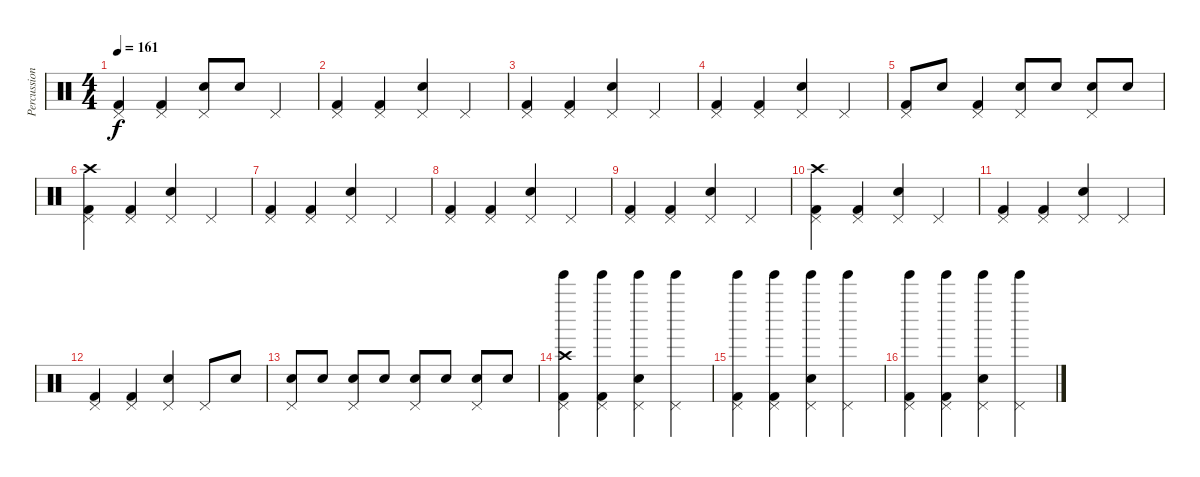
\track ("Percussion" "Percussion") {instrument percussion}
\staff {score}
\articulation defaults
\ts (4 4)
\tempo 161
\clef neutral
\ks c
("Pedal Hi-Hat (hit)" "Kick (hit) 2").4{dy f} ("Pedal Hi-Hat (hit)" "Kick (hit) 2").4 ("Pedal Hi-Hat (hit)" "Electric Snare (hit)").8 "Electric Snare (hit)".8 "Pedal Hi-Hat (hit)".4 |
("Pedal Hi-Hat (hit)" "Kick (hit) 2").4 ("Pedal Hi-Hat (hit)" "Kick (hit) 2").4 ("Pedal Hi-Hat (hit)" "Electric Snare (hit)").4 "Pedal Hi-Hat (hit)".4 |
("Pedal Hi-Hat (hit)" "Kick (hit) 2").4 ("Pedal Hi-Hat (hit)" "Kick (hit) 2").4 ("Pedal Hi-Hat (hit)" "Electric Snare (hit)").4 "Pedal Hi-Hat (hit)".4 |
("Pedal Hi-Hat (hit)" "Kick (hit) 2").4 ("Pedal Hi-Hat (hit)" "Kick (hit) 2").4 ("Pedal Hi-Hat (hit)" "Electric Snare (hit)").4 "Pedal Hi-Hat (hit)".4 |
("Pedal Hi-Hat (hit)" "Kick (hit) 2").8 "Electric Snare (hit)".8 ("Pedal Hi-Hat (hit)" "Kick (hit) 2").4 ("Pedal Hi-Hat (hit)" "Electric Snare (hit)").8 "Electric Snare (hit)".8 ("Pedal Hi-Hat (hit)" "Electric Snare (hit)").8 "Electric Snare (hit)".8 |
("Pedal Hi-Hat (hit)" "Crash high (hit)" "Kick (hit) 2").4 ("Pedal Hi-Hat (hit)" "Kick (hit) 2").4 ("Pedal Hi-Hat (hit)" "Electric Snare (hit)").4 "Pedal Hi-Hat (hit)".4 |
("Pedal Hi-Hat (hit)" "Kick (hit) 2").4 ("Pedal Hi-Hat (hit)" "Kick (hit) 2").4 ("Pedal Hi-Hat (hit)" "Electric Snare (hit)").4 "Pedal Hi-Hat (hit)".4 |
("Pedal Hi-Hat (hit)" "Kick (hit) 2").4 ("Pedal Hi-Hat (hit)" "Kick (hit) 2").4 ("Pedal Hi-Hat (hit)" "Electric Snare (hit)").4 "Pedal Hi-Hat (hit)".4 |
("Pedal Hi-Hat (hit)" "Kick (hit) 2").4 ("Pedal Hi-Hat (hit)" "Kick (hit) 2").4 ("Pedal Hi-Hat (hit)" "Electric Snare (hit)").4 "Pedal Hi-Hat (hit)".4 |
("Pedal Hi-Hat (hit)" "Crash high (hit)" "Kick (hit) 2").4 ("Pedal Hi-Hat (hit)" "Kick (hit) 2").4 ("Pedal Hi-Hat (hit)" "Electric Snare (hit)").4 "Pedal Hi-Hat (hit)".4 |
("Pedal Hi-Hat (hit)" "Kick (hit) 2").4 ("Pedal Hi-Hat (hit)" "Kick (hit) 2").4 ("Pedal Hi-Hat (hit)" "Electric Snare (hit)").4 "Pedal Hi-Hat (hit)".4 |
("Pedal Hi-Hat (hit)" "Kick (hit) 2").4 ("Pedal Hi-Hat (hit)" "Kick (hit) 2").4 ("Pedal Hi-Hat (hit)" "Electric Snare (hit)").4 "Pedal Hi-Hat (hit)".8 "Electric Snare (hit)".8 |
("Pedal Hi-Hat (hit)" "Electric Snare (hit)").8 "Electric Snare (hit)".8 ("Pedal Hi-Hat (hit)" "Electric Snare (hit)").8 "Electric Snare (hit)".8 ("Pedal Hi-Hat (hit)" "Electric Snare (hit)").8 "Electric Snare (hit)".8 ("Pedal Hi-Hat (hit)" "Electric Snare (hit)").8 "Electric Snare (hit)".8 |
("Tinkle Bell (hit)" "Pedal Hi-Hat (hit)" "Crash high (hit)" "Kick (hit) 2").4 ("Tinkle Bell (hit)" "Pedal Hi-Hat (hit)" "Kick (hit) 2").4 ("Tinkle Bell (hit)" "Pedal Hi-Hat (hit)" "Electric Snare (hit)").4 ("Tinkle Bell (hit)" "Pedal Hi-Hat (hit)").4 |
("Tinkle Bell (hit)" "Pedal Hi-Hat (hit)" "Kick (hit) 2").4 ("Tinkle Bell (hit)" "Pedal Hi-Hat (hit)" "Kick (hit) 2").4 ("Tinkle Bell (hit)" "Pedal Hi-Hat (hit)" "Electric Snare (hit)").4 ("Tinkle Bell (hit)" "Pedal Hi-Hat (hit)").4 |
("Tinkle Bell (hit)" "Pedal Hi-Hat (hit)" "Kick (hit) 2").4 ("Tinkle Bell (hit)" "Pedal Hi-Hat (hit)" "Kick (hit) 2").4 ("Tinkle Bell (hit)" "Pedal Hi-Hat (hit)" "Electric Snare (hit)").4 ("Tinkle Bell (hit)" "Pedal Hi-Hat (hit)").4
